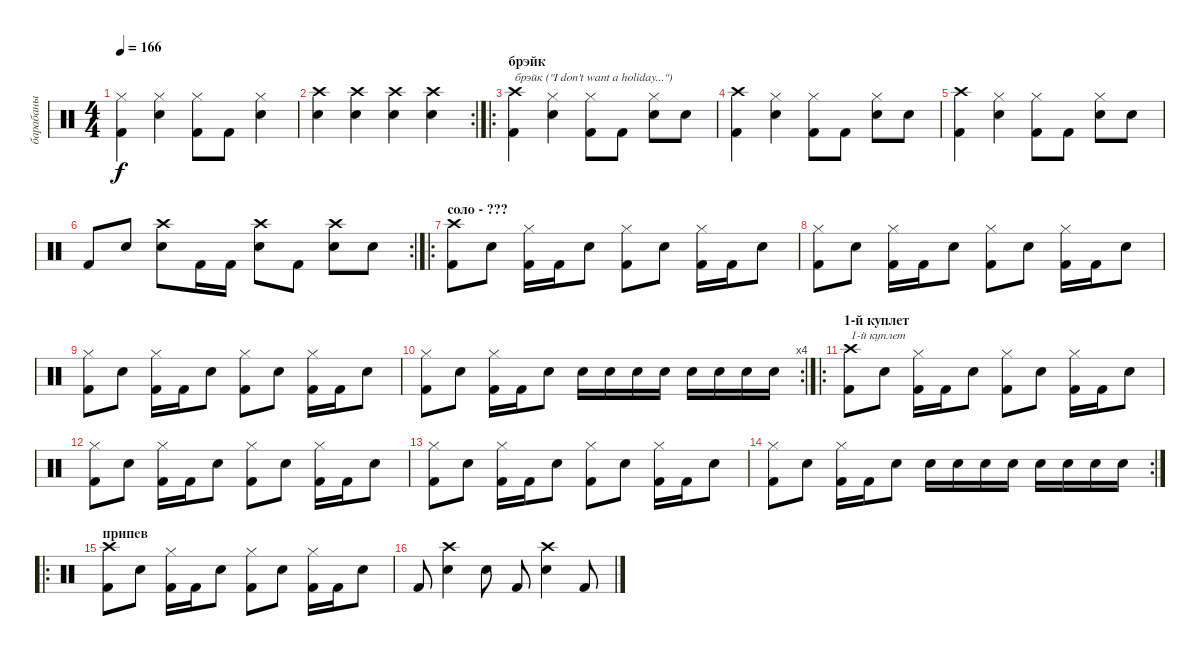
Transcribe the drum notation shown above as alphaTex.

\track ("барабаны" "барабаны") {instrument percussion}
\staff {score}
\articulation defaults
\ts (4 4)
\tempo 166
\clef neutral
\ks c
("Hi-Hat (closed)" "Kick (hit) 2").4{dy f} ("Hi-Hat (closed)" "Snare (hit) 2").4 ("Hi-Hat (closed)" "Kick (hit) 2").8 "Kick (hit) 2".8 ("Hi-Hat (closed)" "Snare (hit) 2").4 |
\rc 2
("Crash high (hit)" "Snare (hit) 2").4 ("Crash high (hit)" "Snare (hit) 2").4 ("Crash high (hit)" "Snare (hit) 2").4 ("Crash high (hit)" "Snare (hit) 2").4 |
\ro
\section ("" "брэйк")
("Crash high (hit)" "Kick (hit) 2").4{txt "брэйк (\"I don't want a holiday...\")"} ("Hi-Hat (closed)" "Snare (hit) 2").4 ("Hi-Hat (closed)" "Kick (hit) 2").8 "Kick (hit) 2".8 ("Hi-Hat (closed)" "Snare (hit) 2").8 "Snare (hit) 2".8 |
("Crash high (hit)" "Kick (hit) 2").4 ("Hi-Hat (closed)" "Snare (hit) 2").4 ("Hi-Hat (closed)" "Kick (hit) 2").8 "Kick (hit) 2".8 ("Hi-Hat (closed)" "Snare (hit) 2").8 "Snare (hit) 2".8 |
("Crash high (hit)" "Kick (hit) 2").4 ("Hi-Hat (closed)" "Snare (hit) 2").4 ("Hi-Hat (closed)" "Kick (hit) 2").8 "Kick (hit) 2".8 ("Hi-Hat (closed)" "Snare (hit) 2").8 "Snare (hit) 2".8 |
\rc 2 "Kick (hit) 2".8 "Snare (hit) 2".8
("Crash high (hit)" "Snare (hit) 2").8 "Kick (hit) 2".16 "Kick (hit) 2".16 ("Crash high (hit)" "Snare (hit) 2").8 "Kick (hit) 2".8 ("Crash high (hit)" "Snare (hit) 2").8 "Snare (hit) 2".8 |
\ro
\section ("" "соло - ???")
("Crash high (hit)" "Kick (hit) 2").8 "Snare (hit) 2".8 ("Hi-Hat (closed)" "Kick (hit) 2").16 "Kick (hit) 2".16 "Snare (hit) 2".8 ("Hi-Hat (closed)" "Kick (hit) 2").8 "Snare (hit) 2".8 ("Hi-Hat (closed)" "Kick (hit) 2").16 "Kick (hit) 2".16 "Snare (hit) 2".8 |
("Hi-Hat (closed)" "Kick (hit) 2").8 "Snare (hit) 2".8 ("Hi-Hat (closed)" "Kick (hit) 2").16 "Kick (hit) 2".16 "Snare (hit) 2".8 ("Hi-Hat (closed)" "Kick (hit) 2").8 "Snare (hit) 2".8 ("Hi-Hat (closed)" "Kick (hit) 2").16 "Kick (hit) 2".16 "Snare (hit) 2".8 |
("Hi-Hat (closed)" "Kick (hit) 2").8 "Snare (hit) 2".8 ("Hi-Hat (closed)" "Kick (hit) 2").16 "Kick (hit) 2".16 "Snare (hit) 2".8 ("Hi-Hat (closed)" "Kick (hit) 2").8 "Snare (hit) 2".8 ("Hi-Hat (closed)" "Kick (hit) 2").16 "Kick (hit) 2".16 "Snare (hit) 2".8 |
\rc 4
("Hi-Hat (closed)" "Kick (hit) 2").8 "Snare (hit) 2".8 ("Hi-Hat (closed)" "Kick (hit) 2").16 "Kick (hit) 2".16 "Snare (hit) 2".8 "Snare (hit) 2".16 "Snare (hit) 2".16 "Snare (hit) 2".16 "Snare (hit) 2".16 "Snare (hit) 2".16 "Snare (hit) 2".16 "Snare (hit) 2".16 "Snare (hit) 2".16 |
\ro
\section ("" "1-й куплет")
("Crash high (hit)" "Kick (hit) 2").8{txt "1-й куплет"} "Snare (hit) 2".8 ("Hi-Hat (closed)" "Kick (hit) 2").16 "Kick (hit) 2".16 "Snare (hit) 2".8 ("Hi-Hat (closed)" "Kick (hit) 2").8 "Snare (hit) 2".8 ("Hi-Hat (closed)" "Kick (hit) 2").16 "Kick (hit) 2".16 "Snare (hit) 2".8 |
("Hi-Hat (closed)" "Kick (hit) 2").8 "Snare (hit) 2".8 ("Hi-Hat (closed)" "Kick (hit) 2").16 "Kick (hit) 2".16 "Snare (hit) 2".8 ("Hi-Hat (closed)" "Kick (hit) 2").8 "Snare (hit) 2".8 ("Hi-Hat (closed)" "Kick (hit) 2").16 "Kick (hit) 2".16 "Snare (hit) 2".8 |
("Hi-Hat (closed)" "Kick (hit) 2").8 "Snare (hit) 2".8 ("Hi-Hat (closed)" "Kick (hit) 2").16 "Kick (hit) 2".16 "Snare (hit) 2".8 ("Hi-Hat (closed)" "Kick (hit) 2").8 "Snare (hit) 2".8 ("Hi-Hat (closed)" "Kick (hit) 2").16 "Kick (hit) 2".16 "Snare (hit) 2".8 |
\rc 2
("Hi-Hat (closed)" "Kick (hit) 2").8 "Snare (hit) 2".8 ("Hi-Hat (closed)" "Kick (hit) 2").16 "Kick (hit) 2".16 "Snare (hit) 2".8 "Snare (hit) 2".16 "Snare (hit) 2".16 "Snare (hit) 2".16 "Snare (hit) 2".16 "Snare (hit) 2".16 "Snare (hit) 2".16 "Snare (hit) 2".16 "Snare (hit) 2".16 |
\ro
\section ("" "припев")
("Crash high (hit)" "Kick (hit) 2").8 "Snare (hit) 2".8 ("Hi-Hat (closed)" "Kick (hit) 2").16 "Kick (hit) 2".16 "Snare (hit) 2".8 ("Hi-Hat (closed)" "Kick (hit) 2").8 "Snare (hit) 2".8 ("Hi-Hat (closed)" "Kick (hit) 2").16 "Kick (hit) 2".16 "Snare (hit) 2".8 |
"Kick (hit) 2".8 ("Crash high (hit)" "Snare (hit) 2").4 "Snare (hit) 2".8 "Kick (hit) 2".8 ("Crash high (hit)" "Snare (hit) 2").4 "Kick (hit) 2".8
